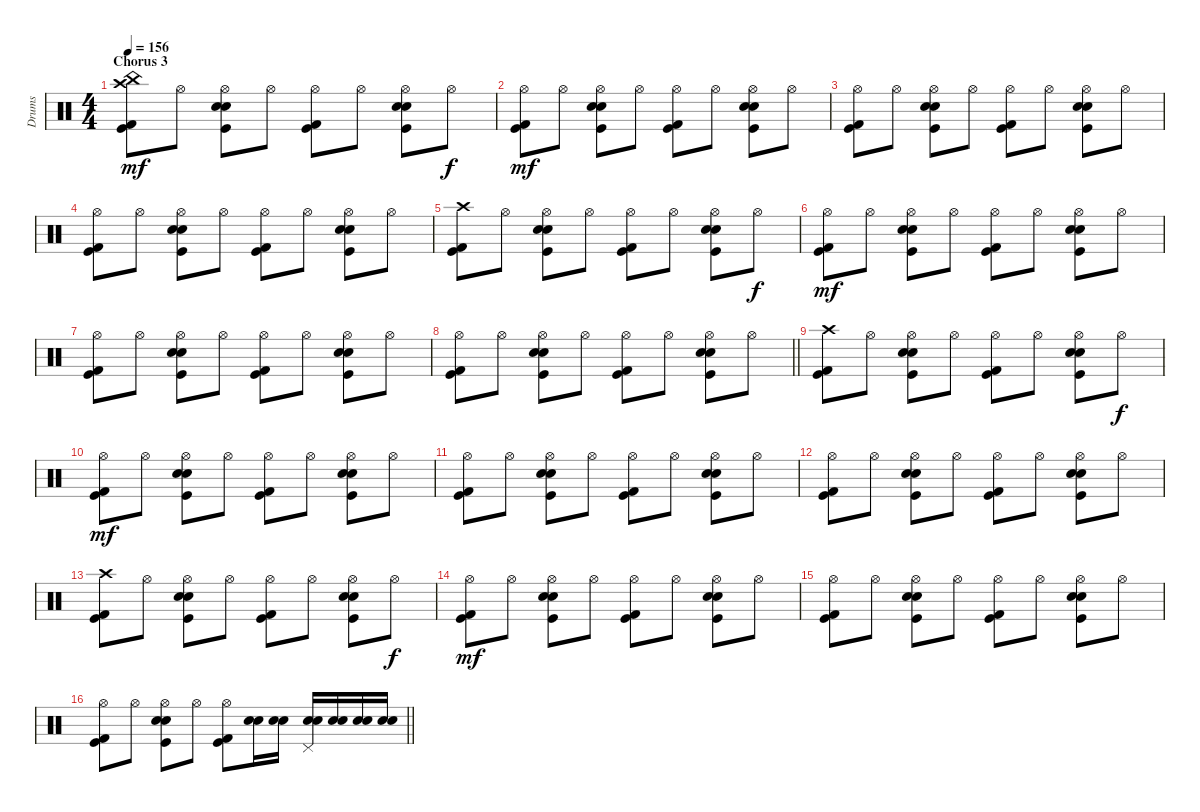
\track ("Drums" "Drums") {instrument percussion}
\staff {score}
\articulation defaults
\ts (4 4)
\section ("" "Chorus 3")
\tempo 156
\clef neutral
\ks c
("Crash high (hit)" "China (hit)" "Kick (hit) 2" "Kick (hit)").8{dy mf} "Hi-Hat (open)".8 ("Hi-Hat (open)" "Snare (hit) 2" "Electric Snare (hit)" "Kick (hit)").8 "Hi-Hat (open)".8 ("Hi-Hat (open)" "Kick (hit) 2" "Kick (hit)").8 "Hi-Hat (open)".8 ("Hi-Hat (open)" "Snare (hit) 2" "Electric Snare (hit)" "Kick (hit)").8 "Hi-Hat (open)".8{dy f} |
("Hi-Hat (open)" "Kick (hit) 2" "Kick (hit)").8{dy mf} "Hi-Hat (open)".8 ("Hi-Hat (open)" "Snare (hit) 2" "Electric Snare (hit)" "Kick (hit)").8 "Hi-Hat (open)".8 ("Hi-Hat (open)" "Kick (hit) 2" "Kick (hit)").8 "Hi-Hat (open)".8 ("Hi-Hat (open)" "Snare (hit) 2" "Electric Snare (hit)" "Kick (hit)").8 "Hi-Hat (open)".8 |
("Hi-Hat (open)" "Kick (hit) 2" "Kick (hit)").8 "Hi-Hat (open)".8 ("Hi-Hat (open)" "Snare (hit) 2" "Electric Snare (hit)" "Kick (hit)").8 "Hi-Hat (open)".8 ("Hi-Hat (open)" "Kick (hit) 2" "Kick (hit)").8 "Hi-Hat (open)".8 ("Hi-Hat (open)" "Snare (hit) 2" "Electric Snare (hit)" "Kick (hit)").8 "Hi-Hat (open)".8 |
("Hi-Hat (open)" "Kick (hit) 2" "Kick (hit)").8 "Hi-Hat (open)".8 ("Hi-Hat (open)" "Snare (hit) 2" "Electric Snare (hit)" "Kick (hit)").8 "Hi-Hat (open)".8 ("Hi-Hat (open)" "Kick (hit) 2" "Kick (hit)").8 "Hi-Hat (open)".8 ("Hi-Hat (open)" "Snare (hit) 2" "Electric Snare (hit)" "Kick (hit)").8 "Hi-Hat (open)".8 |
("Crash high (hit)" "Kick (hit) 2" "Kick (hit)").8 "Hi-Hat (open)".8 ("Hi-Hat (open)" "Snare (hit) 2" "Electric Snare (hit)" "Kick (hit)").8 "Hi-Hat (open)".8 ("Hi-Hat (open)" "Kick (hit) 2" "Kick (hit)").8 "Hi-Hat (open)".8 ("Hi-Hat (open)" "Snare (hit) 2" "Electric Snare (hit)" "Kick (hit)").8 "Hi-Hat (open)".8{dy f} |
("Hi-Hat (open)" "Kick (hit) 2" "Kick (hit)").8{dy mf} "Hi-Hat (open)".8 ("Hi-Hat (open)" "Snare (hit) 2" "Electric Snare (hit)" "Kick (hit)").8 "Hi-Hat (open)".8 ("Hi-Hat (open)" "Kick (hit) 2" "Kick (hit)").8 "Hi-Hat (open)".8 ("Hi-Hat (open)" "Snare (hit) 2" "Electric Snare (hit)" "Kick (hit)").8 "Hi-Hat (open)".8 |
("Hi-Hat (open)" "Kick (hit) 2" "Kick (hit)").8 "Hi-Hat (open)".8 ("Hi-Hat (open)" "Snare (hit) 2" "Electric Snare (hit)" "Kick (hit)").8 "Hi-Hat (open)".8 ("Hi-Hat (open)" "Kick (hit) 2" "Kick (hit)").8 "Hi-Hat (open)".8 ("Hi-Hat (open)" "Snare (hit) 2" "Electric Snare (hit)" "Kick (hit)").8 "Hi-Hat (open)".8 |
\barLineRight lightlight
("Hi-Hat (open)" "Kick (hit) 2" "Kick (hit)").8 "Hi-Hat (open)".8 ("Hi-Hat (open)" "Snare (hit) 2" "Electric Snare (hit)" "Kick (hit)").8 "Hi-Hat (open)".8 ("Hi-Hat (open)" "Kick (hit) 2" "Kick (hit)").8 "Hi-Hat (open)".8 ("Hi-Hat (open)" "Snare (hit) 2" "Electric Snare (hit)" "Kick (hit)").8 "Hi-Hat (open)".8 |
("Crash high (hit)" "Kick (hit) 2" "Kick (hit)").8 "Hi-Hat (open)".8 ("Hi-Hat (open)" "Snare (hit) 2" "Electric Snare (hit)" "Kick (hit)").8 "Hi-Hat (open)".8 ("Hi-Hat (open)" "Kick (hit) 2" "Kick (hit)").8 "Hi-Hat (open)".8 ("Hi-Hat (open)" "Snare (hit) 2" "Electric Snare (hit)" "Kick (hit)").8 "Hi-Hat (open)".8{dy f} |
("Hi-Hat (open)" "Kick (hit) 2" "Kick (hit)").8{dy mf} "Hi-Hat (open)".8 ("Hi-Hat (open)" "Snare (hit) 2" "Electric Snare (hit)" "Kick (hit)").8 "Hi-Hat (open)".8 ("Hi-Hat (open)" "Kick (hit) 2" "Kick (hit)").8 "Hi-Hat (open)".8 ("Hi-Hat (open)" "Snare (hit) 2" "Electric Snare (hit)" "Kick (hit)").8 "Hi-Hat (open)".8 |
("Hi-Hat (open)" "Kick (hit) 2" "Kick (hit)").8 "Hi-Hat (open)".8 ("Hi-Hat (open)" "Snare (hit) 2" "Electric Snare (hit)" "Kick (hit)").8 "Hi-Hat (open)".8 ("Hi-Hat (open)" "Kick (hit) 2" "Kick (hit)").8 "Hi-Hat (open)".8 ("Hi-Hat (open)" "Snare (hit) 2" "Electric Snare (hit)" "Kick (hit)").8 "Hi-Hat (open)".8 |
("Hi-Hat (open)" "Kick (hit) 2" "Kick (hit)").8 "Hi-Hat (open)".8 ("Hi-Hat (open)" "Snare (hit) 2" "Electric Snare (hit)" "Kick (hit)").8 "Hi-Hat (open)".8 ("Hi-Hat (open)" "Kick (hit) 2" "Kick (hit)").8 "Hi-Hat (open)".8 ("Hi-Hat (open)" "Snare (hit) 2" "Electric Snare (hit)" "Kick (hit)").8 "Hi-Hat (open)".8 |
("Crash high (hit)" "Kick (hit) 2" "Kick (hit)").8 "Hi-Hat (open)".8 ("Hi-Hat (open)" "Snare (hit) 2" "Electric Snare (hit)" "Kick (hit)").8 "Hi-Hat (open)".8 ("Hi-Hat (open)" "Kick (hit) 2" "Kick (hit)").8 "Hi-Hat (open)".8 ("Hi-Hat (open)" "Snare (hit) 2" "Electric Snare (hit)" "Kick (hit)").8 "Hi-Hat (open)".8{dy f} |
("Hi-Hat (open)" "Kick (hit) 2" "Kick (hit)").8{dy mf} "Hi-Hat (open)".8 ("Hi-Hat (open)" "Snare (hit) 2" "Electric Snare (hit)" "Kick (hit)").8 "Hi-Hat (open)".8 ("Hi-Hat (open)" "Kick (hit) 2" "Kick (hit)").8 "Hi-Hat (open)".8 ("Hi-Hat (open)" "Snare (hit) 2" "Electric Snare (hit)" "Kick (hit)").8 "Hi-Hat (open)".8 |
("Hi-Hat (open)" "Kick (hit) 2" "Kick (hit)").8 "Hi-Hat (open)".8 ("Hi-Hat (open)" "Snare (hit) 2" "Electric Snare (hit)" "Kick (hit)").8 "Hi-Hat (open)".8 ("Hi-Hat (open)" "Kick (hit) 2" "Kick (hit)").8 "Hi-Hat (open)".8 ("Hi-Hat (open)" "Snare (hit) 2" "Electric Snare (hit)" "Kick (hit)").8 "Hi-Hat (open)".8 |
\barLineRight lightlight
("Hi-Hat (open)" "Kick (hit) 2" "Kick (hit)").8 "Hi-Hat (open)".8 ("Hi-Hat (open)" "Snare (hit) 2" "Electric Snare (hit)" "Kick (hit)").8 "Hi-Hat (open)".8 ("Hi-Hat (open)" "Kick (hit) 2" "Kick (hit)").8 ("Snare (hit) 2" "Electric Snare (hit)").16 ("Snare (hit) 2" "Electric Snare (hit)").16 ("Pedal Hi-Hat (hit)" "Snare (hit) 2" "Electric Snare (hit)").16 ("Snare (hit) 2" "Electric Snare (hit)").16 ("Snare (hit) 2" "Electric Snare (hit)").16 ("Snare (hit) 2" "Electric Snare (hit)").16
